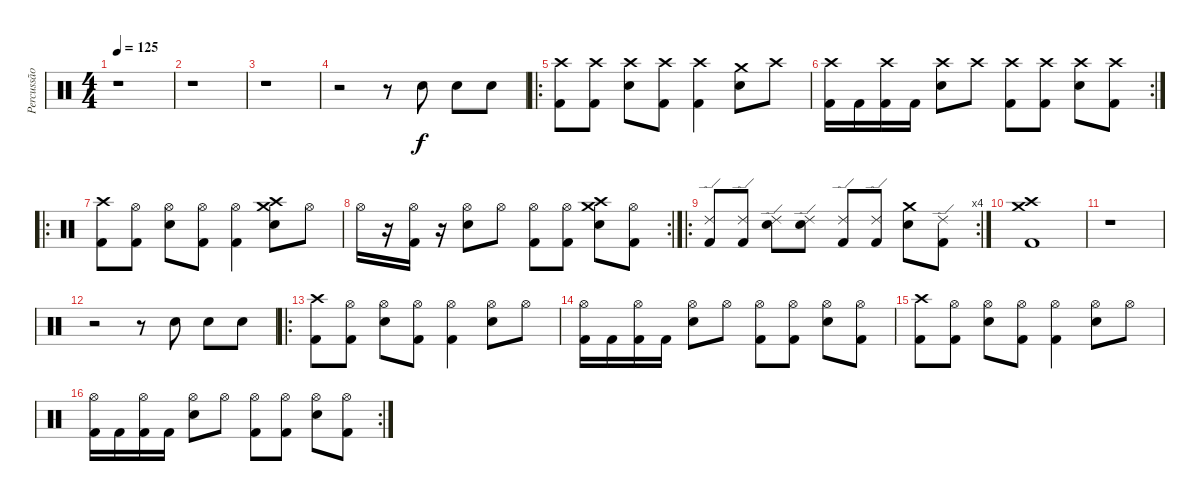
\track ("Percussão" "Percussão") {instrument percussion}
\staff {score}
\articulation defaults
\ts (4 4)
\tempo 125
\clef neutral
\ks c
r.1{dy f} |
r.1 |
r.1 |
r.2 r.8 "Electric Snare (hit)".8 "Electric Snare (hit)".8 "Electric Snare (hit)".8 |
\ro
("Crash high (hit)" "Kick (hit) 2").8 ("Crash high (hit)" "Kick (hit) 2").8 ("Crash high (hit)" "Electric Snare (hit)").8 ("Crash high (hit)" "Kick (hit) 2").8 ("Crash high (hit)" "Kick (hit) 2").4 ("Crash medium (hit)" "Electric Snare (hit)").8 "Crash high (hit)".8 |
\rc 2
("Crash high (hit)" "Kick (hit) 2").16 "Kick (hit) 2".16 ("Crash high (hit)" "Kick (hit) 2").16 "Kick (hit) 2".16 ("Crash high (hit)" "Electric Snare (hit)").8 "Crash high (hit)".8 ("Crash high (hit)" "Kick (hit) 2").8 ("Crash high (hit)" "Kick (hit) 2").8 ("Crash high (hit)" "Electric Snare (hit)").8 ("Crash high (hit)" "Kick (hit) 2").8 |
\ro
("Crash high (hit)" "Kick (hit) 2").8 ("Hi-Hat (open)" "Kick (hit) 2").8 ("Hi-Hat (open)" "Electric Snare (hit)").8 ("Hi-Hat (open)" "Kick (hit) 2").8 ("Hi-Hat (open)" "Kick (hit) 2").4 ("Crash medium (hit)" "Crash high (hit)" "Electric Snare (hit)").8 "Hi-Hat (open)".8 |
\rc 2 "Hi-Hat (open)".16
r.16 ("Hi-Hat (open)" "Kick (hit) 2").16 r.16 ("Hi-Hat (open)" "Electric Snare (hit)").8 "Hi-Hat (open)".8 ("Hi-Hat (open)" "Kick (hit) 2").8 ("Hi-Hat (open)" "Kick (hit) 2").8 ("Crash medium (hit)" "Crash high (hit)" "Electric Snare (hit)").8 ("Hi-Hat (open)" "Kick (hit) 2").8 |
\ro
\rc 4
("Ride (edge) 2" "Kick (hit) 2").8 ("Ride (edge) 2" "Kick (hit) 2").8 ("Ride (edge) 2" "Electric Snare (hit)").8 ("Ride (edge) 2" "Electric Snare (hit)").8 ("Ride (edge) 2" "Kick (hit) 2").8 ("Ride (edge) 2" "Kick (hit) 2").8 ("Crash medium (hit)" "Electric Snare (hit)").8 ("Ride (edge) 2" "Kick (hit) 2").8 |
("Crash high (hit)" "Crash medium (hit)" "Kick (hit) 2").1 |
r.1 |
r.2 r.8 "Electric Snare (hit)".8 "Electric Snare (hit)".8 "Electric Snare (hit)".8 |
\ro
("Crash high (hit)" "Kick (hit) 2").8 ("Hi-Hat (open)" "Kick (hit) 2").8 ("Hi-Hat (open)" "Electric Snare (hit)").8 ("Hi-Hat (open)" "Kick (hit) 2").8 ("Hi-Hat (open)" "Kick (hit) 2").4 ("Hi-Hat (open)" "Electric Snare (hit)").8 "Hi-Hat (open)".8 |
("Hi-Hat (open)" "Kick (hit) 2").16 "Kick (hit) 2".16 ("Hi-Hat (open)" "Kick (hit) 2").16 "Kick (hit) 2".16 ("Hi-Hat (open)" "Electric Snare (hit)").8 "Hi-Hat (open)".8 ("Hi-Hat (open)" "Kick (hit) 2").8 ("Hi-Hat (open)" "Kick (hit) 2").8 ("Hi-Hat (open)" "Electric Snare (hit)").8 ("Hi-Hat (open)" "Kick (hit) 2").8 |
("Crash high (hit)" "Kick (hit) 2").8 ("Hi-Hat (open)" "Kick (hit) 2").8 ("Hi-Hat (open)" "Electric Snare (hit)").8 ("Hi-Hat (open)" "Kick (hit) 2").8 ("Hi-Hat (open)" "Kick (hit) 2").4 ("Hi-Hat (open)" "Electric Snare (hit)").8 "Hi-Hat (open)".8 |
\rc 2
("Hi-Hat (open)" "Kick (hit) 2").16 "Kick (hit) 2".16 ("Hi-Hat (open)" "Kick (hit) 2").16 "Kick (hit) 2".16 ("Hi-Hat (open)" "Electric Snare (hit)").8 "Hi-Hat (open)".8 ("Hi-Hat (open)" "Kick (hit) 2").8 ("Hi-Hat (open)" "Kick (hit) 2").8 ("Hi-Hat (open)" "Electric Snare (hit)").8 ("Hi-Hat (open)" "Kick (hit) 2").8
